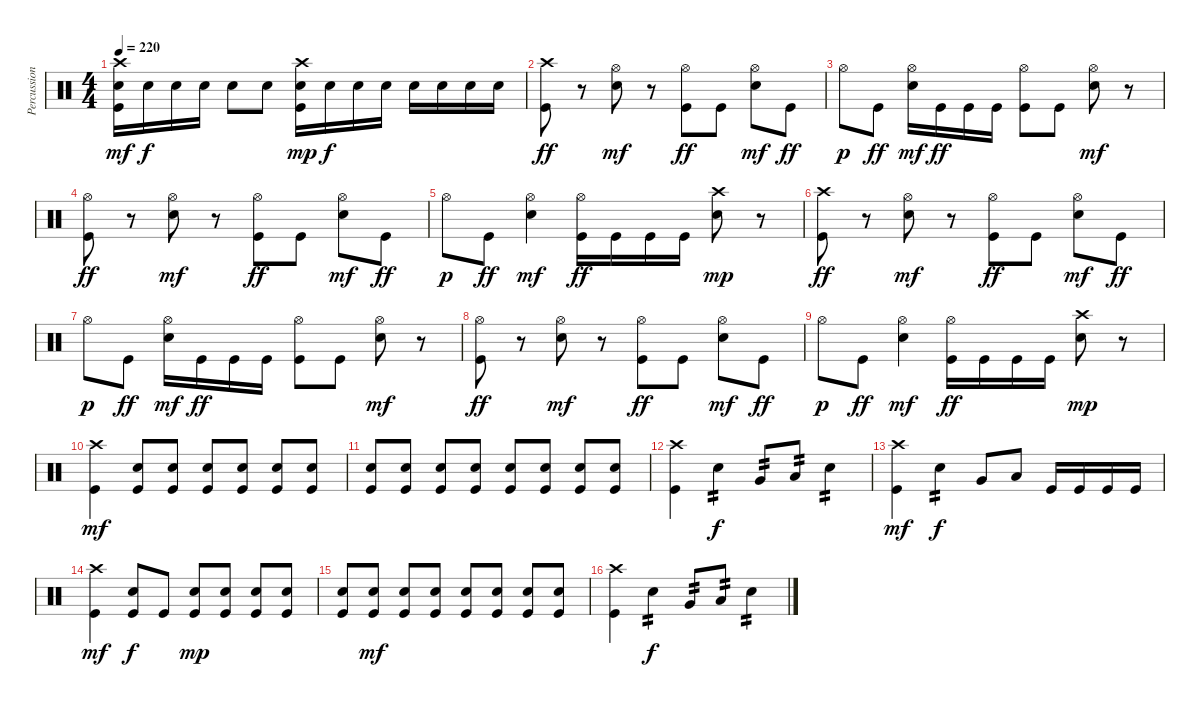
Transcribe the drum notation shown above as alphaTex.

\track ("Percussion" "Percussion") {instrument percussion}
\staff {score}
\articulation defaults
\ts (4 4)
\tempo 220
\clef neutral
\ks c
("Crash high (hit)" "Electric Snare (hit)" "Kick (hit)").16{dy mf} "Electric Snare (hit)".16{dy f} "Electric Snare (hit)".16 "Electric Snare (hit)".16 "Electric Snare (hit)".8 "Electric Snare (hit)".8 ("Crash high (hit)" "Electric Snare (hit)" "Kick (hit)").16{dy mp} "Electric Snare (hit)".16{dy f} "Electric Snare (hit)".16 "Electric Snare (hit)".16 "Electric Snare (hit)".16 "Electric Snare (hit)".16 "Electric Snare (hit)".16 "Electric Snare (hit)".16 |
("Crash high (hit)" "Kick (hit)").8{dy ff} r.8 ("Hi-Hat (open)" "Electric Snare (hit)").8{dy mf} r.8 ("Hi-Hat (open)" "Kick (hit)").8{dy ff} "Kick (hit)".8 ("Hi-Hat (open)" "Electric Snare (hit)").8{dy mf} "Kick (hit)".8{dy ff} |
"Hi-Hat (open)".8{dy p} "Kick (hit)".8{dy ff} ("Hi-Hat (open)" "Electric Snare (hit)").16{dy mf} "Kick (hit)".16{dy ff} "Kick (hit)".16 "Kick (hit)".16 ("Hi-Hat (open)" "Kick (hit)").8 "Kick (hit)".8 ("Hi-Hat (open)" "Electric Snare (hit)").8{dy mf} r.8 |
("Hi-Hat (open)" "Kick (hit)").8{dy ff} r.8 ("Hi-Hat (open)" "Electric Snare (hit)").8{dy mf} r.8 ("Hi-Hat (open)" "Kick (hit)").8{dy ff} "Kick (hit)".8 ("Hi-Hat (open)" "Electric Snare (hit)").8{dy mf} "Kick (hit)".8{dy ff} |
"Hi-Hat (open)".8{dy p} "Kick (hit)".8{dy ff} ("Hi-Hat (open)" "Electric Snare (hit)").4{dy mf} ("Hi-Hat (open)" "Kick (hit)").16{dy ff} "Kick (hit)".16 "Kick (hit)".16 "Kick (hit)".16 ("Crash high (hit)" "Electric Snare (hit)").8{dy mp} r.8 |
("Crash high (hit)" "Kick (hit)").8{dy ff} r.8 ("Hi-Hat (open)" "Electric Snare (hit)").8{dy mf} r.8 ("Hi-Hat (open)" "Kick (hit)").8{dy ff} "Kick (hit)".8 ("Hi-Hat (open)" "Electric Snare (hit)").8{dy mf} "Kick (hit)".8{dy ff} |
"Hi-Hat (open)".8{dy p} "Kick (hit)".8{dy ff} ("Hi-Hat (open)" "Electric Snare (hit)").16{dy mf} "Kick (hit)".16{dy ff} "Kick (hit)".16 "Kick (hit)".16 ("Hi-Hat (open)" "Kick (hit)").8 "Kick (hit)".8 ("Hi-Hat (open)" "Electric Snare (hit)").8{dy mf} r.8 |
("Hi-Hat (open)" "Kick (hit)").8{dy ff} r.8 ("Hi-Hat (open)" "Electric Snare (hit)").8{dy mf} r.8 ("Hi-Hat (open)" "Kick (hit)").8{dy ff} "Kick (hit)".8 ("Hi-Hat (open)" "Electric Snare (hit)").8{dy mf} "Kick (hit)".8{dy ff} |
"Hi-Hat (open)".8{dy p} "Kick (hit)".8{dy ff} ("Hi-Hat (open)" "Electric Snare (hit)").4{dy mf} ("Hi-Hat (open)" "Kick (hit)").16{dy ff} "Kick (hit)".16 "Kick (hit)".16 "Kick (hit)".16 ("Crash high (hit)" "Electric Snare (hit)").8{dy mp} r.8 |
("Crash high (hit)" "Kick (hit)").4{dy mf} ("Electric Snare (hit)" "Kick (hit)").8 ("Electric Snare (hit)" "Kick (hit)").8 ("Electric Snare (hit)" "Kick (hit)").8 ("Electric Snare (hit)" "Kick (hit)").8 ("Electric Snare (hit)" "Kick (hit)").8 ("Electric Snare (hit)" "Kick (hit)").8 |
("Electric Snare (hit)" "Kick (hit)").8 ("Electric Snare (hit)" "Kick (hit)").8 ("Electric Snare (hit)" "Kick (hit)").8 ("Electric Snare (hit)" "Kick (hit)").8 ("Electric Snare (hit)" "Kick (hit)").8 ("Electric Snare (hit)" "Kick (hit)").8 ("Electric Snare (hit)" "Kick (hit)").8 ("Electric Snare (hit)" "Kick (hit)").8 |
("Crash high (hit)" "Kick (hit)").4 "Electric Snare (hit)".4{tp 2 dy f} "Very Low Tom (hit)".8{tp 2} "Low Floor Tom (hit)".8{tp 2} "Electric Snare (hit)".4{tp 2} |
("Crash high (hit)" "Kick (hit)").4{dy mf} "Electric Snare (hit)".4{tp 2 dy f} "Very Low Tom (hit)".8 "Low Floor Tom (hit)".8 "Kick (hit)".16 "Kick (hit)".16 "Kick (hit)".16 "Kick (hit)".16 |
("Crash high (hit)" "Kick (hit)").4{dy mf} ("Electric Snare (hit)" "Kick (hit)").8{dy f} "Kick (hit)".8 ("Electric Snare (hit)" "Kick (hit)").8{dy mp} ("Electric Snare (hit)" "Kick (hit)").8 ("Electric Snare (hit)" "Kick (hit)").8 ("Electric Snare (hit)" "Kick (hit)").8 |
("Electric Snare (hit)" "Kick (hit)").8 ("Electric Snare (hit)" "Kick (hit)").8{dy mf} ("Electric Snare (hit)" "Kick (hit)").8 ("Electric Snare (hit)" "Kick (hit)").8 ("Electric Snare (hit)" "Kick (hit)").8 ("Electric Snare (hit)" "Kick (hit)").8 ("Electric Snare (hit)" "Kick (hit)").8 ("Electric Snare (hit)" "Kick (hit)").8 |
("Crash high (hit)" "Kick (hit)").4 "Electric Snare (hit)".4{tp 2 dy f} "Very Low Tom (hit)".8{tp 2} "Low Floor Tom (hit)".8{tp 2} "Electric Snare (hit)".4{tp 2}
